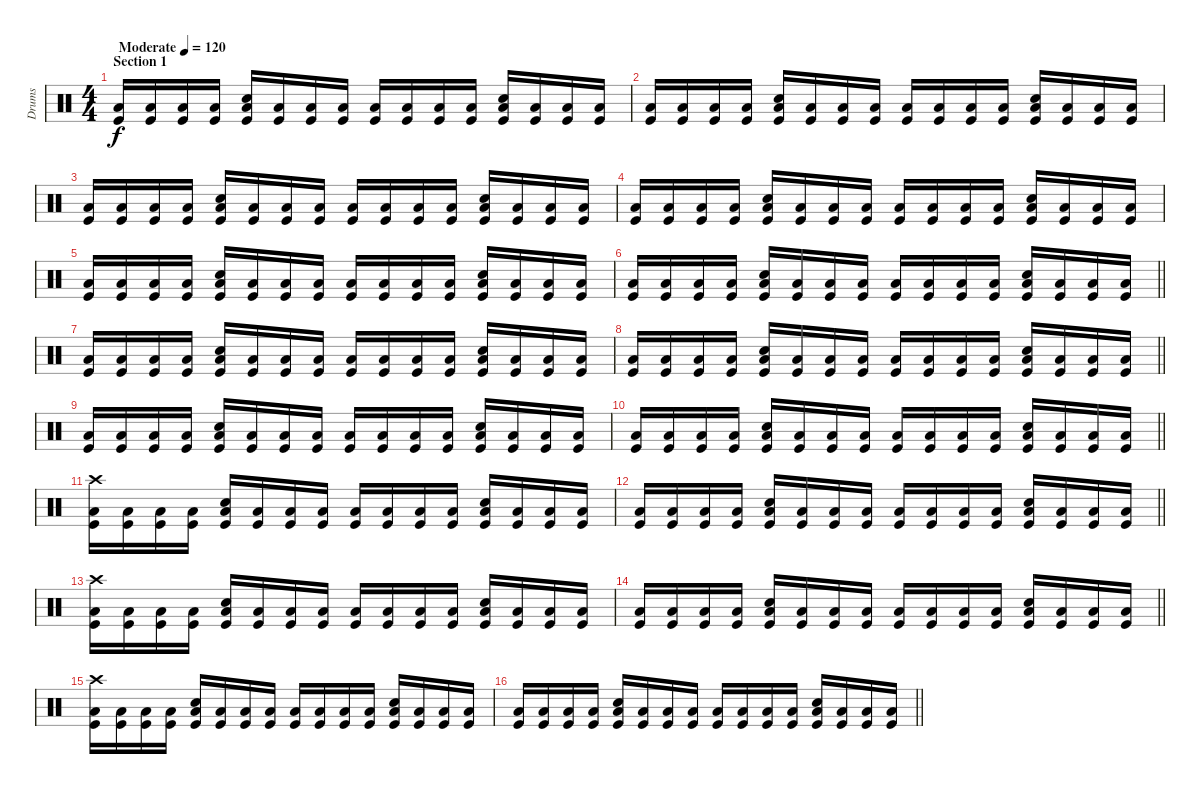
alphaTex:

\track ("Drums" "Drums") {instrument percussion}
\staff {score}
\articulation defaults
\ts (4 4)
\section ("" "Section 1")
\tempo (120 "Moderate")
\clef neutral
\ks c
("Low Floor Tom (hit)" "Kick (hit)").16{dy f} ("Low Floor Tom (hit)" "Kick (hit)").16 ("Low Floor Tom (hit)" "Kick (hit)").16 ("Low Floor Tom (hit)" "Kick (hit)").16 ("Snare (hit) 2" "Low Floor Tom (hit)" "Kick (hit)").16 ("Low Floor Tom (hit)" "Kick (hit)").16 ("Low Floor Tom (hit)" "Kick (hit)").16 ("Low Floor Tom (hit)" "Kick (hit)").16 ("Low Floor Tom (hit)" "Kick (hit)").16 ("Low Floor Tom (hit)" "Kick (hit)").16 ("Low Floor Tom (hit)" "Kick (hit)").16 ("Low Floor Tom (hit)" "Kick (hit)").16 ("Snare (hit) 2" "Low Floor Tom (hit)" "Kick (hit)").16 ("Low Floor Tom (hit)" "Kick (hit)").16 ("Low Floor Tom (hit)" "Kick (hit)").16 ("Low Floor Tom (hit)" "Kick (hit)").16 |
("Low Floor Tom (hit)" "Kick (hit)").16 ("Low Floor Tom (hit)" "Kick (hit)").16 ("Low Floor Tom (hit)" "Kick (hit)").16 ("Low Floor Tom (hit)" "Kick (hit)").16 ("Snare (hit) 2" "Low Floor Tom (hit)" "Kick (hit)").16 ("Low Floor Tom (hit)" "Kick (hit)").16 ("Low Floor Tom (hit)" "Kick (hit)").16 ("Low Floor Tom (hit)" "Kick (hit)").16 ("Low Floor Tom (hit)" "Kick (hit)").16 ("Low Floor Tom (hit)" "Kick (hit)").16 ("Low Floor Tom (hit)" "Kick (hit)").16 ("Low Floor Tom (hit)" "Kick (hit)").16 ("Snare (hit) 2" "Low Floor Tom (hit)" "Kick (hit)").16 ("Low Floor Tom (hit)" "Kick (hit)").16 ("Low Floor Tom (hit)" "Kick (hit)").16 ("Low Floor Tom (hit)" "Kick (hit)").16 |
("Low Floor Tom (hit)" "Kick (hit)").16 ("Low Floor Tom (hit)" "Kick (hit)").16 ("Low Floor Tom (hit)" "Kick (hit)").16 ("Low Floor Tom (hit)" "Kick (hit)").16 ("Snare (hit) 2" "Low Floor Tom (hit)" "Kick (hit)").16 ("Low Floor Tom (hit)" "Kick (hit)").16 ("Low Floor Tom (hit)" "Kick (hit)").16 ("Low Floor Tom (hit)" "Kick (hit)").16 ("Low Floor Tom (hit)" "Kick (hit)").16 ("Low Floor Tom (hit)" "Kick (hit)").16 ("Low Floor Tom (hit)" "Kick (hit)").16 ("Low Floor Tom (hit)" "Kick (hit)").16 ("Snare (hit) 2" "Low Floor Tom (hit)" "Kick (hit)").16 ("Low Floor Tom (hit)" "Kick (hit)").16 ("Low Floor Tom (hit)" "Kick (hit)").16 ("Low Floor Tom (hit)" "Kick (hit)").16 |
("Low Floor Tom (hit)" "Kick (hit)").16 ("Low Floor Tom (hit)" "Kick (hit)").16 ("Low Floor Tom (hit)" "Kick (hit)").16 ("Low Floor Tom (hit)" "Kick (hit)").16 ("Snare (hit) 2" "Low Floor Tom (hit)" "Kick (hit)").16 ("Low Floor Tom (hit)" "Kick (hit)").16 ("Low Floor Tom (hit)" "Kick (hit)").16 ("Low Floor Tom (hit)" "Kick (hit)").16 ("Low Floor Tom (hit)" "Kick (hit)").16 ("Low Floor Tom (hit)" "Kick (hit)").16 ("Low Floor Tom (hit)" "Kick (hit)").16 ("Low Floor Tom (hit)" "Kick (hit)").16 ("Snare (hit) 2" "Low Floor Tom (hit)" "Kick (hit)").16 ("Low Floor Tom (hit)" "Kick (hit)").16 ("Low Floor Tom (hit)" "Kick (hit)").16 ("Low Floor Tom (hit)" "Kick (hit)").16 |
("Low Floor Tom (hit)" "Kick (hit)").16 ("Low Floor Tom (hit)" "Kick (hit)").16 ("Low Floor Tom (hit)" "Kick (hit)").16 ("Low Floor Tom (hit)" "Kick (hit)").16 ("Snare (hit) 2" "Low Floor Tom (hit)" "Kick (hit)").16 ("Low Floor Tom (hit)" "Kick (hit)").16 ("Low Floor Tom (hit)" "Kick (hit)").16 ("Low Floor Tom (hit)" "Kick (hit)").16 ("Low Floor Tom (hit)" "Kick (hit)").16 ("Low Floor Tom (hit)" "Kick (hit)").16 ("Low Floor Tom (hit)" "Kick (hit)").16 ("Low Floor Tom (hit)" "Kick (hit)").16 ("Snare (hit) 2" "Low Floor Tom (hit)" "Kick (hit)").16 ("Low Floor Tom (hit)" "Kick (hit)").16 ("Low Floor Tom (hit)" "Kick (hit)").16 ("Low Floor Tom (hit)" "Kick (hit)").16 |
\barLineRight lightlight
("Low Floor Tom (hit)" "Kick (hit)").16 ("Low Floor Tom (hit)" "Kick (hit)").16 ("Low Floor Tom (hit)" "Kick (hit)").16 ("Low Floor Tom (hit)" "Kick (hit)").16 ("Snare (hit) 2" "Low Floor Tom (hit)" "Kick (hit)").16 ("Low Floor Tom (hit)" "Kick (hit)").16 ("Low Floor Tom (hit)" "Kick (hit)").16 ("Low Floor Tom (hit)" "Kick (hit)").16 ("Low Floor Tom (hit)" "Kick (hit)").16 ("Low Floor Tom (hit)" "Kick (hit)").16 ("Low Floor Tom (hit)" "Kick (hit)").16 ("Low Floor Tom (hit)" "Kick (hit)").16 ("Snare (hit) 2" "Low Floor Tom (hit)" "Kick (hit)").16 ("Low Floor Tom (hit)" "Kick (hit)").16 ("Low Floor Tom (hit)" "Kick (hit)").16 ("Low Floor Tom (hit)" "Kick (hit)").16 |
("Low Floor Tom (hit)" "Kick (hit)").16 ("Low Floor Tom (hit)" "Kick (hit)").16 ("Low Floor Tom (hit)" "Kick (hit)").16 ("Low Floor Tom (hit)" "Kick (hit)").16 ("Snare (hit) 2" "Low Floor Tom (hit)" "Kick (hit)").16 ("Low Floor Tom (hit)" "Kick (hit)").16 ("Low Floor Tom (hit)" "Kick (hit)").16 ("Low Floor Tom (hit)" "Kick (hit)").16 ("Low Floor Tom (hit)" "Kick (hit)").16 ("Low Floor Tom (hit)" "Kick (hit)").16 ("Low Floor Tom (hit)" "Kick (hit)").16 ("Low Floor Tom (hit)" "Kick (hit)").16 ("Snare (hit) 2" "Low Floor Tom (hit)" "Kick (hit)").16 ("Low Floor Tom (hit)" "Kick (hit)").16 ("Low Floor Tom (hit)" "Kick (hit)").16 ("Low Floor Tom (hit)" "Kick (hit)").16 |
\barLineRight lightlight
("Low Floor Tom (hit)" "Kick (hit)").16 ("Low Floor Tom (hit)" "Kick (hit)").16 ("Low Floor Tom (hit)" "Kick (hit)").16 ("Low Floor Tom (hit)" "Kick (hit)").16 ("Snare (hit) 2" "Low Floor Tom (hit)" "Kick (hit)").16 ("Low Floor Tom (hit)" "Kick (hit)").16 ("Low Floor Tom (hit)" "Kick (hit)").16 ("Low Floor Tom (hit)" "Kick (hit)").16 ("Low Floor Tom (hit)" "Kick (hit)").16 ("Low Floor Tom (hit)" "Kick (hit)").16 ("Low Floor Tom (hit)" "Kick (hit)").16 ("Low Floor Tom (hit)" "Kick (hit)").16 ("Snare (hit) 2" "Low Floor Tom (hit)" "Kick (hit)").16 ("Low Floor Tom (hit)" "Kick (hit)").16 ("Low Floor Tom (hit)" "Kick (hit)").16 ("Low Floor Tom (hit)" "Kick (hit)").16 |
("Low Floor Tom (hit)" "Kick (hit)").16 ("Low Floor Tom (hit)" "Kick (hit)").16 ("Low Floor Tom (hit)" "Kick (hit)").16 ("Low Floor Tom (hit)" "Kick (hit)").16 ("Snare (hit) 2" "Low Floor Tom (hit)" "Kick (hit)").16 ("Low Floor Tom (hit)" "Kick (hit)").16 ("Low Floor Tom (hit)" "Kick (hit)").16 ("Low Floor Tom (hit)" "Kick (hit)").16 ("Low Floor Tom (hit)" "Kick (hit)").16 ("Low Floor Tom (hit)" "Kick (hit)").16 ("Low Floor Tom (hit)" "Kick (hit)").16 ("Low Floor Tom (hit)" "Kick (hit)").16 ("Snare (hit) 2" "Low Floor Tom (hit)" "Kick (hit)").16 ("Low Floor Tom (hit)" "Kick (hit)").16 ("Low Floor Tom (hit)" "Kick (hit)").16 ("Low Floor Tom (hit)" "Kick (hit)").16 |
\barLineRight lightlight
("Low Floor Tom (hit)" "Kick (hit)").16 ("Low Floor Tom (hit)" "Kick (hit)").16 ("Low Floor Tom (hit)" "Kick (hit)").16 ("Low Floor Tom (hit)" "Kick (hit)").16 ("Snare (hit) 2" "Low Floor Tom (hit)" "Kick (hit)").16 ("Low Floor Tom (hit)" "Kick (hit)").16 ("Low Floor Tom (hit)" "Kick (hit)").16 ("Low Floor Tom (hit)" "Kick (hit)").16 ("Low Floor Tom (hit)" "Kick (hit)").16 ("Low Floor Tom (hit)" "Kick (hit)").16 ("Low Floor Tom (hit)" "Kick (hit)").16 ("Low Floor Tom (hit)" "Kick (hit)").16 ("Snare (hit) 2" "Low Floor Tom (hit)" "Kick (hit)").16 ("Low Floor Tom (hit)" "Kick (hit)").16 ("Low Floor Tom (hit)" "Kick (hit)").16 ("Low Floor Tom (hit)" "Kick (hit)").16 |
("Crash high (hit)" "Low Floor Tom (hit)" "Kick (hit)").16 ("Low Floor Tom (hit)" "Kick (hit)").16 ("Low Floor Tom (hit)" "Kick (hit)").16 ("Low Floor Tom (hit)" "Kick (hit)").16 ("Snare (hit) 2" "Low Floor Tom (hit)" "Kick (hit)").16 ("Low Floor Tom (hit)" "Kick (hit)").16 ("Low Floor Tom (hit)" "Kick (hit)").16 ("Low Floor Tom (hit)" "Kick (hit)").16 ("Low Floor Tom (hit)" "Kick (hit)").16 ("Low Floor Tom (hit)" "Kick (hit)").16 ("Low Floor Tom (hit)" "Kick (hit)").16 ("Low Floor Tom (hit)" "Kick (hit)").16 ("Snare (hit) 2" "Low Floor Tom (hit)" "Kick (hit)").16 ("Low Floor Tom (hit)" "Kick (hit)").16 ("Low Floor Tom (hit)" "Kick (hit)").16 ("Low Floor Tom (hit)" "Kick (hit)").16 |
\barLineRight lightlight
("Low Floor Tom (hit)" "Kick (hit)").16 ("Low Floor Tom (hit)" "Kick (hit)").16 ("Low Floor Tom (hit)" "Kick (hit)").16 ("Low Floor Tom (hit)" "Kick (hit)").16 ("Snare (hit) 2" "Low Floor Tom (hit)" "Kick (hit)").16 ("Low Floor Tom (hit)" "Kick (hit)").16 ("Low Floor Tom (hit)" "Kick (hit)").16 ("Low Floor Tom (hit)" "Kick (hit)").16 ("Low Floor Tom (hit)" "Kick (hit)").16 ("Low Floor Tom (hit)" "Kick (hit)").16 ("Low Floor Tom (hit)" "Kick (hit)").16 ("Low Floor Tom (hit)" "Kick (hit)").16 ("Snare (hit) 2" "Low Floor Tom (hit)" "Kick (hit)").16 ("Low Floor Tom (hit)" "Kick (hit)").16 ("Low Floor Tom (hit)" "Kick (hit)").16 ("Low Floor Tom (hit)" "Kick (hit)").16 |
("Crash high (hit)" "Low Floor Tom (hit)" "Kick (hit)").16 ("Low Floor Tom (hit)" "Kick (hit)").16 ("Low Floor Tom (hit)" "Kick (hit)").16 ("Low Floor Tom (hit)" "Kick (hit)").16 ("Snare (hit) 2" "Low Floor Tom (hit)" "Kick (hit)").16 ("Low Floor Tom (hit)" "Kick (hit)").16 ("Low Floor Tom (hit)" "Kick (hit)").16 ("Low Floor Tom (hit)" "Kick (hit)").16 ("Low Floor Tom (hit)" "Kick (hit)").16 ("Low Floor Tom (hit)" "Kick (hit)").16 ("Low Floor Tom (hit)" "Kick (hit)").16 ("Low Floor Tom (hit)" "Kick (hit)").16 ("Snare (hit) 2" "Low Floor Tom (hit)" "Kick (hit)").16 ("Low Floor Tom (hit)" "Kick (hit)").16 ("Low Floor Tom (hit)" "Kick (hit)").16 ("Low Floor Tom (hit)" "Kick (hit)").16 |
\barLineRight lightlight
("Low Floor Tom (hit)" "Kick (hit)").16 ("Low Floor Tom (hit)" "Kick (hit)").16 ("Low Floor Tom (hit)" "Kick (hit)").16 ("Low Floor Tom (hit)" "Kick (hit)").16 ("Snare (hit) 2" "Low Floor Tom (hit)" "Kick (hit)").16 ("Low Floor Tom (hit)" "Kick (hit)").16 ("Low Floor Tom (hit)" "Kick (hit)").16 ("Low Floor Tom (hit)" "Kick (hit)").16 ("Low Floor Tom (hit)" "Kick (hit)").16 ("Low Floor Tom (hit)" "Kick (hit)").16 ("Low Floor Tom (hit)" "Kick (hit)").16 ("Low Floor Tom (hit)" "Kick (hit)").16 ("Snare (hit) 2" "Low Floor Tom (hit)" "Kick (hit)").16 ("Low Floor Tom (hit)" "Kick (hit)").16 ("Low Floor Tom (hit)" "Kick (hit)").16 ("Low Floor Tom (hit)" "Kick (hit)").16 |
("Crash high (hit)" "Low Floor Tom (hit)" "Kick (hit)").16 ("Low Floor Tom (hit)" "Kick (hit)").16 ("Low Floor Tom (hit)" "Kick (hit)").16 ("Low Floor Tom (hit)" "Kick (hit)").16 ("Snare (hit) 2" "Low Floor Tom (hit)" "Kick (hit)").16 ("Low Floor Tom (hit)" "Kick (hit)").16 ("Low Floor Tom (hit)" "Kick (hit)").16 ("Low Floor Tom (hit)" "Kick (hit)").16 ("Low Floor Tom (hit)" "Kick (hit)").16 ("Low Floor Tom (hit)" "Kick (hit)").16 ("Low Floor Tom (hit)" "Kick (hit)").16 ("Low Floor Tom (hit)" "Kick (hit)").16 ("Snare (hit) 2" "Low Floor Tom (hit)" "Kick (hit)").16 ("Low Floor Tom (hit)" "Kick (hit)").16 ("Low Floor Tom (hit)" "Kick (hit)").16 ("Low Floor Tom (hit)" "Kick (hit)").16 |
\barLineRight lightlight
("Low Floor Tom (hit)" "Kick (hit)").16 ("Low Floor Tom (hit)" "Kick (hit)").16 ("Low Floor Tom (hit)" "Kick (hit)").16 ("Low Floor Tom (hit)" "Kick (hit)").16 ("Snare (hit) 2" "Low Floor Tom (hit)" "Kick (hit)").16 ("Low Floor Tom (hit)" "Kick (hit)").16 ("Low Floor Tom (hit)" "Kick (hit)").16 ("Low Floor Tom (hit)" "Kick (hit)").16 ("Low Floor Tom (hit)" "Kick (hit)").16 ("Low Floor Tom (hit)" "Kick (hit)").16 ("Low Floor Tom (hit)" "Kick (hit)").16 ("Low Floor Tom (hit)" "Kick (hit)").16 ("Snare (hit) 2" "Low Floor Tom (hit)" "Kick (hit)").16 ("Low Floor Tom (hit)" "Kick (hit)").16 ("Low Floor Tom (hit)" "Kick (hit)").16 ("Low Floor Tom (hit)" "Kick (hit)").16
